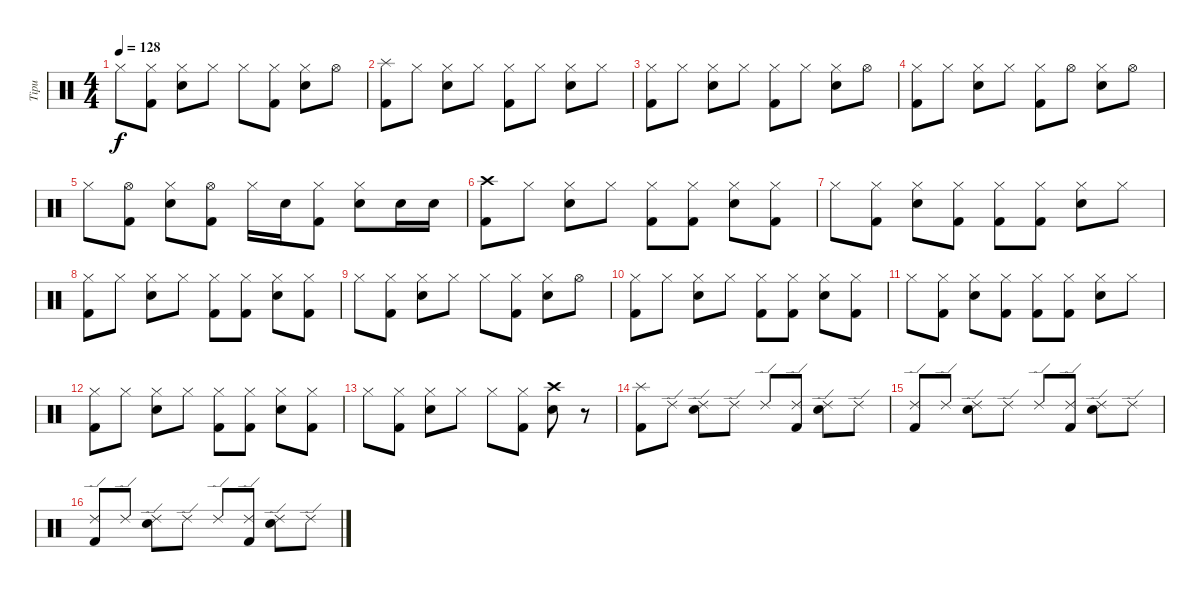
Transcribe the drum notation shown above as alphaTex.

\track ("Tipu" "Tipu") {instrument percussion}
\staff {score}
\articulation defaults
\ts (4 4)
\tempo 128
\clef neutral
\ks c "Hi-Hat (closed)".8{dy f}
("Hi-Hat (closed)" "Kick (hit) 2").8 ("Hi-Hat (closed)" "Electric Snare (hit)").8 "Hi-Hat (closed)".8 "Hi-Hat (closed)".8 ("Hi-Hat (closed)" "Kick (hit) 2").8 ("Hi-Hat (closed)" "Electric Snare (hit)").8 "Hi-Hat (open)".8 |
("Splash (hit)" "Kick (hit) 2").8 "Hi-Hat (closed)".8 ("Hi-Hat (closed)" "Electric Snare (hit)").8 "Hi-Hat (closed)".8 ("Hi-Hat (closed)" "Kick (hit) 2").8 "Hi-Hat (closed)".8 ("Hi-Hat (closed)" "Electric Snare (hit)").8 "Hi-Hat (closed)".8 |
("Hi-Hat (closed)" "Kick (hit) 2").8 "Hi-Hat (closed)".8 ("Hi-Hat (closed)" "Electric Snare (hit)").8 "Hi-Hat (closed)".8 ("Hi-Hat (closed)" "Kick (hit) 2").8 "Hi-Hat (closed)".8 ("Hi-Hat (closed)" "Electric Snare (hit)").8 "Hi-Hat (open)".8 |
("Hi-Hat (closed)" "Kick (hit) 2").8 "Hi-Hat (closed)".8 ("Hi-Hat (closed)" "Electric Snare (hit)").8 "Hi-Hat (closed)".8 ("Hi-Hat (closed)" "Kick (hit) 2").8 "Hi-Hat (open)".8 ("Hi-Hat (closed)" "Electric Snare (hit)").8 "Hi-Hat (open)".8 |
"Hi-Hat (closed)".8 ("Hi-Hat (open)" "Kick (hit) 2").8 ("Hi-Hat (closed)" "Electric Snare (hit)").8 ("Hi-Hat (open)" "Kick (hit) 2").8 "Hi-Hat (closed)".16 "Electric Snare (hit)".16 ("Hi-Hat (closed)" "Kick (hit) 2").8 ("Hi-Hat (closed)" "Electric Snare (hit)").8 "Electric Snare (hit)".16 "Electric Snare (hit)".16 |
("Crash high (hit)" "Kick (hit) 2").8 "Hi-Hat (closed)".8 ("Hi-Hat (closed)" "Electric Snare (hit)").8 "Hi-Hat (closed)".8 ("Hi-Hat (closed)" "Kick (hit) 2").8 ("Hi-Hat (closed)" "Kick (hit) 2").8 ("Hi-Hat (closed)" "Electric Snare (hit)").8 ("Hi-Hat (closed)" "Kick (hit) 2").8 |
"Hi-Hat (closed)".8 ("Hi-Hat (closed)" "Kick (hit) 2").8 ("Hi-Hat (closed)" "Electric Snare (hit)").8 ("Hi-Hat (closed)" "Kick (hit) 2").8 ("Hi-Hat (closed)" "Kick (hit) 2").8 ("Hi-Hat (closed)" "Kick (hit) 2").8 ("Hi-Hat (closed)" "Electric Snare (hit)").8 "Hi-Hat (closed)".8 |
("Hi-Hat (closed)" "Kick (hit) 2").8 "Hi-Hat (closed)".8 ("Hi-Hat (closed)" "Electric Snare (hit)").8 "Hi-Hat (closed)".8 ("Hi-Hat (closed)" "Kick (hit) 2").8 ("Hi-Hat (closed)" "Kick (hit) 2").8 ("Hi-Hat (closed)" "Electric Snare (hit)").8 ("Hi-Hat (closed)" "Kick (hit) 2").8 |
"Hi-Hat (closed)".8 ("Hi-Hat (closed)" "Kick (hit) 2").8 ("Hi-Hat (closed)" "Electric Snare (hit)").8 "Hi-Hat (closed)".8 "Hi-Hat (closed)".8 ("Hi-Hat (closed)" "Kick (hit) 2").8 ("Hi-Hat (closed)" "Electric Snare (hit)").8 "Hi-Hat (open)".8 |
("Hi-Hat (closed)" "Kick (hit) 2").8 "Hi-Hat (closed)".8 ("Hi-Hat (closed)" "Electric Snare (hit)").8 "Hi-Hat (closed)".8 ("Hi-Hat (closed)" "Kick (hit) 2").8 ("Hi-Hat (closed)" "Kick (hit) 2").8 ("Hi-Hat (closed)" "Electric Snare (hit)").8 ("Hi-Hat (closed)" "Kick (hit) 2").8 |
"Hi-Hat (closed)".8 ("Hi-Hat (closed)" "Kick (hit) 2").8 ("Hi-Hat (closed)" "Electric Snare (hit)").8 ("Hi-Hat (closed)" "Kick (hit) 2").8 ("Hi-Hat (closed)" "Kick (hit) 2").8 ("Hi-Hat (closed)" "Kick (hit) 2").8 ("Hi-Hat (closed)" "Electric Snare (hit)").8 "Hi-Hat (closed)".8 |
("Hi-Hat (closed)" "Kick (hit) 2").8 "Hi-Hat (closed)".8 ("Hi-Hat (closed)" "Electric Snare (hit)").8 "Hi-Hat (closed)".8 ("Hi-Hat (closed)" "Kick (hit) 2").8 ("Hi-Hat (closed)" "Kick (hit) 2").8 ("Hi-Hat (closed)" "Electric Snare (hit)").8 ("Hi-Hat (closed)" "Kick (hit) 2").8 |
"Hi-Hat (closed)".8 ("Hi-Hat (closed)" "Kick (hit) 2").8 ("Hi-Hat (closed)" "Electric Snare (hit)").8 "Hi-Hat (closed)".8 "Hi-Hat (closed)".8 ("Hi-Hat (closed)" "Kick (hit) 2").8 ("Crash high (hit)" "Electric Snare (hit)").8 r.8 |
("Splash (hit)" "Kick (hit) 2").8 "Ride (edge) 2".8 ("Ride (edge) 2" "Electric Snare (hit)").8 "Ride (edge) 2".8 "Ride (edge) 2".8 ("Ride (edge) 2" "Kick (hit) 2").8 ("Ride (edge) 2" "Electric Snare (hit)").8 "Ride (edge) 2".8 |
("Ride (edge) 2" "Kick (hit) 2").8 "Ride (edge) 2".8 ("Ride (edge) 2" "Electric Snare (hit)").8 "Ride (edge) 2".8 "Ride (edge) 2".8 ("Ride (edge) 2" "Kick (hit) 2").8 ("Ride (edge) 2" "Electric Snare (hit)").8 "Ride (edge) 2".8 |
("Ride (edge) 2" "Kick (hit) 2").8 "Ride (edge) 2".8 ("Ride (edge) 2" "Electric Snare (hit)").8 "Ride (edge) 2".8 "Ride (edge) 2".8 ("Ride (edge) 2" "Kick (hit) 2").8 ("Ride (edge) 2" "Electric Snare (hit)").8 "Ride (edge) 2".8
